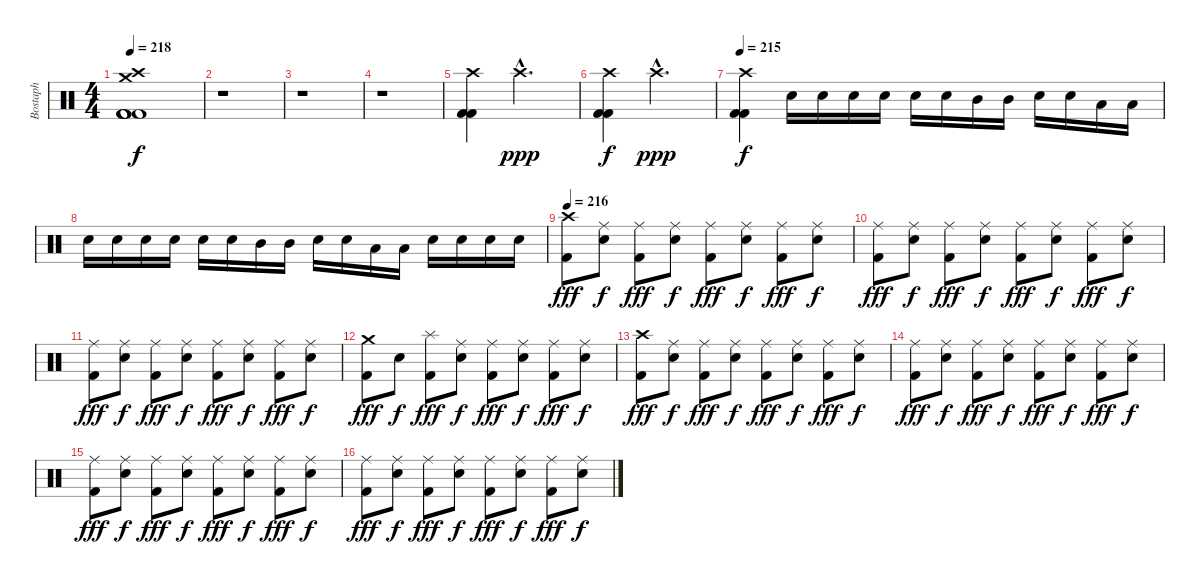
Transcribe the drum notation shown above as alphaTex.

\track ("Bostaph" "Bostaph") {instrument percussion}
\staff {score}
\articulation defaults
\ts (4 4)
\tempo 218
\tempo 205
\tempo 218
\clef neutral
\ks c
("Crash medium (hit)" "Kick (hit) 2" "Kick (hit) 2" "Crash high (hit)" "Kick (hit) 2" "Kick (hit) 2").1{dy f} |
r.1 |
r.1 |
r.1 |
("Crash high (hit)" "Kick (hit) 2" "Kick (hit) 2").4 "Crash high (hit)"{hac}.2{d dy ppp} |
("Crash high (hit)" "Kick (hit) 2" "Kick (hit) 2").4{dy f} "Crash high (hit)"{hac}.2{d dy ppp} |
\tempo 215
("Crash high (hit)" "Kick (hit) 2" "Kick (hit) 2").4{dy f} "Electric Snare (hit)".16 "Electric Snare (hit)".16 "Electric Snare (hit)".16 "Electric Snare (hit)".16 "Electric Snare (hit)".16 "Electric Snare (hit)".16 "Mid Tom (hit)".16 "Mid Tom (hit)".16 "Electric Snare (hit)".16 "Electric Snare (hit)".16 "Low Tom (hit)".16 "Low Tom (hit)".16 |
"Electric Snare (hit)".16 "Electric Snare (hit)".16 "Electric Snare (hit)".16 "Electric Snare (hit)".16 "Electric Snare (hit)".16 "Electric Snare (hit)".16 "Mid Tom (hit)".16 "Mid Tom (hit)".16 "Electric Snare (hit)".16 "Electric Snare (hit)".16 "Low Tom (hit)".16 "Low Tom (hit)".16 "Electric Snare (hit)".16 "Electric Snare (hit)".16 "Electric Snare (hit)".16 "Electric Snare (hit)".16 |
\tempo 216
("Crash high (hit)" "Kick (hit) 2").8{dy fff} ("Ride (middle)" "Electric Snare (hit)").8{dy f} ("Ride (middle)" "Kick (hit) 2").8{dy fff} ("Ride (middle)" "Electric Snare (hit)").8{dy f} ("Ride (middle)" "Kick (hit) 2").8{dy fff} ("Ride (middle)" "Electric Snare (hit)").8{dy f} ("Ride (middle)" "Kick (hit) 2").8{dy fff} ("Ride (middle)" "Electric Snare (hit)").8{dy f} |
("Ride (middle)" "Kick (hit) 2").8{dy fff} ("Ride (middle)" "Electric Snare (hit)").8{dy f} ("Ride (middle)" "Kick (hit) 2").8{dy fff} ("Ride (middle)" "Electric Snare (hit)").8{dy f} ("Ride (middle)" "Kick (hit) 2").8{dy fff} ("Ride (middle)" "Electric Snare (hit)").8{dy f} ("Ride (middle)" "Kick (hit) 2").8{dy fff} ("Ride (middle)" "Electric Snare (hit)").8{dy f} |
("Ride (middle)" "Kick (hit) 2").8{dy fff} ("Ride (middle)" "Electric Snare (hit)").8{dy f} ("Ride (middle)" "Kick (hit) 2").8{dy fff} ("Ride (middle)" "Electric Snare (hit)").8{dy f} ("Ride (middle)" "Kick (hit) 2").8{dy fff} ("Ride (middle)" "Electric Snare (hit)").8{dy f} ("Ride (middle)" "Kick (hit) 2").8{dy fff} ("Ride (middle)" "Electric Snare (hit)").8{dy f} |
("Crash medium (hit)" "Kick (hit) 2").8{dy fff} "Electric Snare (hit)".8{dy f} ("Splash (hit)" "Kick (hit) 2").8{dy fff} ("Ride (middle)" "Electric Snare (hit)").8{dy f} ("Ride (middle)" "Kick (hit) 2").8{dy fff} ("Ride (middle)" "Electric Snare (hit)").8{dy f} ("Ride (middle)" "Kick (hit) 2").8{dy fff} ("Ride (middle)" "Electric Snare (hit)").8{dy f} |
("Crash high (hit)" "Kick (hit) 2").8{dy fff} ("Ride (middle)" "Electric Snare (hit)").8{dy f} ("Ride (middle)" "Kick (hit) 2").8{dy fff} ("Ride (middle)" "Electric Snare (hit)").8{dy f} ("Ride (middle)" "Kick (hit) 2").8{dy fff} ("Ride (middle)" "Electric Snare (hit)").8{dy f} ("Ride (middle)" "Kick (hit) 2").8{dy fff} ("Ride (middle)" "Electric Snare (hit)").8{dy f} |
("Ride (middle)" "Kick (hit) 2").8{dy fff} ("Ride (middle)" "Electric Snare (hit)").8{dy f} ("Ride (middle)" "Kick (hit) 2").8{dy fff} ("Ride (middle)" "Electric Snare (hit)").8{dy f} ("Ride (middle)" "Kick (hit) 2").8{dy fff} ("Ride (middle)" "Electric Snare (hit)").8{dy f} ("Ride (middle)" "Kick (hit) 2").8{dy fff} ("Ride (middle)" "Electric Snare (hit)").8{dy f} |
("Ride (middle)" "Kick (hit) 2").8{dy fff} ("Ride (middle)" "Electric Snare (hit)").8{dy f} ("Ride (middle)" "Kick (hit) 2").8{dy fff} ("Ride (middle)" "Electric Snare (hit)").8{dy f} ("Ride (middle)" "Kick (hit) 2").8{dy fff} ("Ride (middle)" "Electric Snare (hit)").8{dy f} ("Ride (middle)" "Kick (hit) 2").8{dy fff} ("Ride (middle)" "Electric Snare (hit)").8{dy f} |
("Ride (middle)" "Kick (hit) 2").8{dy fff} ("Ride (middle)" "Electric Snare (hit)").8{dy f} ("Ride (middle)" "Kick (hit) 2").8{dy fff} ("Ride (middle)" "Electric Snare (hit)").8{dy f} ("Ride (middle)" "Kick (hit) 2").8{dy fff} ("Ride (middle)" "Electric Snare (hit)").8{dy f} ("Ride (middle)" "Kick (hit) 2").8{dy fff} ("Ride (middle)" "Electric Snare (hit)").8{dy f}
